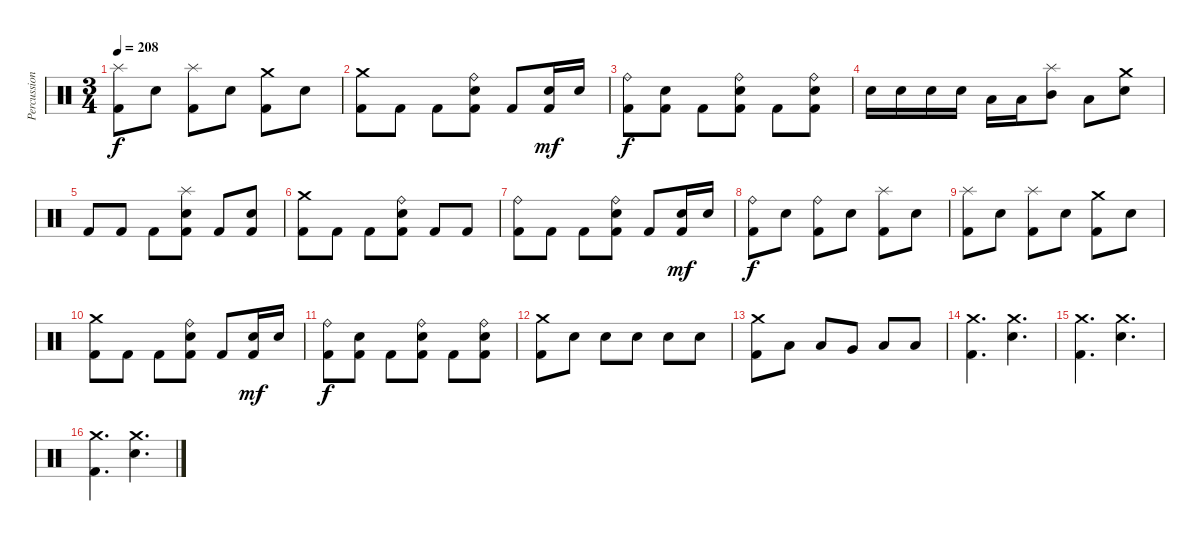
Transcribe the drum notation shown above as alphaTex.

\track ("Percussion" "Percussion") {instrument percussion}
\staff {score}
\articulation defaults
\ts (3 4)
\tempo 208
\clef neutral
\ks c
("Splash (hit)" "Kick (hit) 2").8{dy f} "Electric Snare (hit)".8 ("Splash (hit)" "Kick (hit) 2").8 "Electric Snare (hit)".8 ("Crash medium (hit)" "Kick (hit) 2").8 "Electric Snare (hit)".8 |
("Crash medium (hit)" "Kick (hit) 2").8 "Kick (hit) 2".8 "Kick (hit) 2".8 ("Ride (bell)" "Electric Snare (hit)" "Kick (hit) 2").8 "Kick (hit) 2".8 ("Electric Snare (hit)" "Kick (hit) 2").16{dy mf} "Electric Snare (hit)".16 |
("Ride (bell)" "Kick (hit) 2").8{dy f} ("Electric Snare (hit)" "Kick (hit) 2").8 "Kick (hit) 2".8 ("Ride (bell)" "Electric Snare (hit)" "Kick (hit) 2").8 "Kick (hit) 2".8 ("Ride (bell)" "Electric Snare (hit)" "Kick (hit) 2").8 |
"Electric Snare (hit)".16 "Electric Snare (hit)".16 "Electric Snare (hit)".16 "Electric Snare (hit)".16 "Low Tom (hit)".16 "Low Tom (hit)".16 ("Splash (hit)" "Mid Tom (hit)").8 "Low Tom (hit)".8 ("Crash medium (hit)" "Electric Snare (hit)").8 |
"Kick (hit) 2".8 "Kick (hit) 2".8 "Kick (hit) 2".8 ("Splash (hit)" "Electric Snare (hit)" "Kick (hit) 2").8 "Kick (hit) 2".8 ("Electric Snare (hit)" "Kick (hit) 2").8 |
("Crash medium (hit)" "Kick (hit) 2").8 "Kick (hit) 2".8 "Kick (hit) 2".8 ("Ride (bell)" "Electric Snare (hit)" "Kick (hit) 2").8 "Kick (hit) 2".8 "Kick (hit) 2".8 |
("Ride (bell)" "Kick (hit) 2").8 "Kick (hit) 2".8 "Kick (hit) 2".8 ("Ride (bell)" "Electric Snare (hit)" "Kick (hit) 2").8 "Kick (hit) 2".8 ("Electric Snare (hit)" "Kick (hit) 2").16{dy mf} "Electric Snare (hit)".16 |
("Ride (bell)" "Kick (hit) 2").8{dy f} "Electric Snare (hit)".8 ("Ride (bell)" "Kick (hit) 2").8 "Electric Snare (hit)".8 ("Splash (hit)" "Kick (hit) 2").8 "Electric Snare (hit)".8 |
("Splash (hit)" "Kick (hit) 2").8 "Electric Snare (hit)".8 ("Splash (hit)" "Kick (hit) 2").8 "Electric Snare (hit)".8 ("Crash medium (hit)" "Kick (hit) 2").8 "Electric Snare (hit)".8 |
("Crash medium (hit)" "Kick (hit) 2").8 "Kick (hit) 2".8 "Kick (hit) 2".8 ("Ride (bell)" "Electric Snare (hit)" "Kick (hit) 2").8 "Kick (hit) 2".8 ("Electric Snare (hit)" "Kick (hit) 2").16{dy mf} "Electric Snare (hit)".16 |
("Ride (bell)" "Kick (hit) 2").8{dy f} ("Electric Snare (hit)" "Kick (hit) 2").8 "Kick (hit) 2".8 ("Ride (bell)" "Electric Snare (hit)" "Kick (hit) 2").8 "Kick (hit) 2".8 ("Ride (bell)" "Electric Snare (hit)" "Kick (hit) 2").8 |
("Crash medium (hit)" "Kick (hit) 2").8 "Electric Snare (hit)".8 "Electric Snare (hit)".8 "Electric Snare (hit)".8 "Electric Snare (hit)".8 "Electric Snare (hit)".8 |
("Crash medium (hit)" "Kick (hit) 2").8 "Low Tom (hit)".8 "Low Tom (hit)".8 "Very Low Tom (hit)".8 "Low Floor Tom (hit)".8 "Low Floor Tom (hit)".8 |
("Crash medium (hit)" "Kick (hit) 2").4{d} ("Crash medium (hit)" "Electric Snare (hit)").4{d} |
("Crash medium (hit)" "Kick (hit) 2").4{d} ("Crash medium (hit)" "Electric Snare (hit)").4{d} |
("Crash medium (hit)" "Kick (hit) 2").4{d} ("Crash medium (hit)" "Electric Snare (hit)").4{d}
